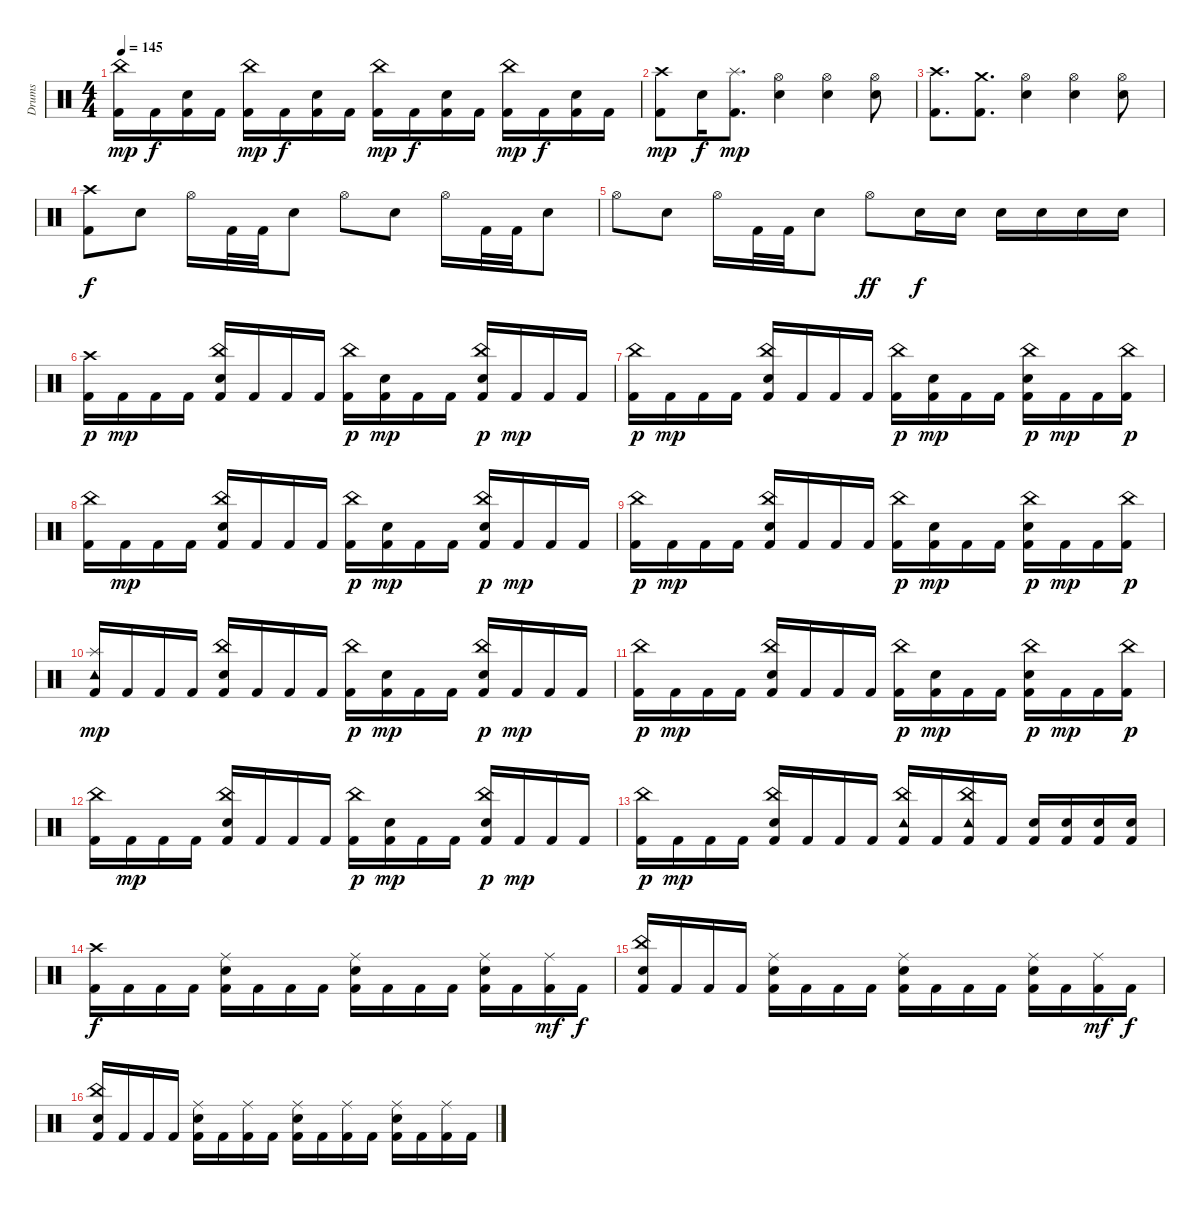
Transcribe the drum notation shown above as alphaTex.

\track ("Drums" "Drums") {instrument percussion}
\staff {score}
\articulation defaults
\ts (4 4)
\tempo 145
\clef neutral
\ks c
("Kick (hit) 2" "China (hit)").16{dy mp} "Kick (hit) 2".16{dy f} ("Electric Snare (hit)" "Kick (hit) 2").16 "Kick (hit) 2".16 ("Kick (hit) 2" "China (hit)").16{dy mp} "Kick (hit) 2".16{dy f} ("Electric Snare (hit)" "Kick (hit) 2").16 "Kick (hit) 2".16 ("Kick (hit) 2" "China (hit)").16{dy mp} "Kick (hit) 2".16{dy f} ("Electric Snare (hit)" "Kick (hit) 2").16 "Kick (hit) 2".16 ("Kick (hit) 2" "China (hit)").16{dy mp} "Kick (hit) 2".16{dy f} ("Electric Snare (hit)" "Kick (hit) 2").16 "Kick (hit) 2".16 |
("Kick (hit) 2" "Crash high (hit)").8{dy mp} "Electric Snare (hit)".16{dy f} ("Splash (hit)" "Kick (hit) 2").8{d dy mp} ("Hi-Hat (open)" "Electric Snare (hit)").4 ("Hi-Hat (open)" "Electric Snare (hit)").4 ("Hi-Hat (open)" "Electric Snare (hit)").8 |
("Kick (hit) 2" "Crash high (hit)").8{d} ("Kick (hit) 2" "Crash medium (hit)").8{d} ("Hi-Hat (open)" "Electric Snare (hit)").4 ("Hi-Hat (open)" "Electric Snare (hit)").4 ("Hi-Hat (open)" "Electric Snare (hit)").8 |
("Kick (hit) 2" "Crash high (hit)").8{dy f} "Electric Snare (hit)".8 "Hi-Hat (open)".16 "Kick (hit) 2".32 "Kick (hit) 2".32 "Electric Snare (hit)".8 "Hi-Hat (open)".8 "Electric Snare (hit)".8 "Hi-Hat (open)".16 "Kick (hit) 2".32 "Kick (hit) 2".32 "Electric Snare (hit)".8 |
"Hi-Hat (open)".8 "Electric Snare (hit)".8 "Hi-Hat (open)".16 "Kick (hit) 2".32 "Kick (hit) 2".32 "Electric Snare (hit)".8 "Hi-Hat (open)".8{dy ff} "Electric Snare (hit)".16{dy f} "Electric Snare (hit)".16 "Electric Snare (hit)".16 "Electric Snare (hit)".16 "Electric Snare (hit)".16 "Electric Snare (hit)".16 |
("Kick (hit) 2" "Crash high (hit)").16{dy p} "Kick (hit) 2".16{dy mp} "Kick (hit) 2".16 "Kick (hit) 2".16 ("Kick (hit) 2" "China (hit)" "Electric Snare (hit)").16 "Kick (hit) 2".16 "Kick (hit) 2".16 "Kick (hit) 2".16 ("Kick (hit) 2" "China (hit)").16{dy p} ("Kick (hit) 2" "Electric Snare (hit)").16{dy mp} "Kick (hit) 2".16 "Kick (hit) 2".16 ("Kick (hit) 2" "Electric Snare (hit)" "China (hit)").16{dy p} "Kick (hit) 2".16{dy mp} "Kick (hit) 2".16 "Kick (hit) 2".16 |
("Kick (hit) 2" "China (hit)").16{dy p} "Kick (hit) 2".16{dy mp} "Kick (hit) 2".16 "Kick (hit) 2".16 ("Kick (hit) 2" "China (hit)" "Electric Snare (hit)").16 "Kick (hit) 2".16 "Kick (hit) 2".16 "Kick (hit) 2".16 ("Kick (hit) 2" "China (hit)").16{dy p} ("Kick (hit) 2" "Electric Snare (hit)").16{dy mp} "Kick (hit) 2".16 "Kick (hit) 2".16 ("Kick (hit) 2" "Electric Snare (hit)" "China (hit)").16{dy p} "Kick (hit) 2".16{dy mp} "Kick (hit) 2".16 ("Kick (hit) 2" "China (hit)").16{dy p} |
("Kick (hit) 2" "China (hit)").16 "Kick (hit) 2".16{dy mp} "Kick (hit) 2".16 "Kick (hit) 2".16 ("Kick (hit) 2" "China (hit)" "Electric Snare (hit)").16 "Kick (hit) 2".16 "Kick (hit) 2".16 "Kick (hit) 2".16 ("Kick (hit) 2" "China (hit)").16{dy p} ("Kick (hit) 2" "Electric Snare (hit)").16{dy mp} "Kick (hit) 2".16 "Kick (hit) 2".16 ("Kick (hit) 2" "Electric Snare (hit)" "China (hit)").16{dy p} "Kick (hit) 2".16{dy mp} "Kick (hit) 2".16 "Kick (hit) 2".16 |
("Kick (hit) 2" "China (hit)").16{dy p} "Kick (hit) 2".16{dy mp} "Kick (hit) 2".16 "Kick (hit) 2".16 ("Kick (hit) 2" "China (hit)" "Electric Snare (hit)").16 "Kick (hit) 2".16 "Kick (hit) 2".16 "Kick (hit) 2".16 ("Kick (hit) 2" "China (hit)").16{dy p} ("Kick (hit) 2" "Electric Snare (hit)").16{dy mp} "Kick (hit) 2".16 "Kick (hit) 2".16 ("Kick (hit) 2" "Electric Snare (hit)" "China (hit)").16{dy p} "Kick (hit) 2".16{dy mp} "Kick (hit) 2".16 ("Kick (hit) 2" "China (hit)").16{dy p} |
("Kick (hit) 2" "Splash (hit)" "Tambourine (hit)").16{dy mp} "Kick (hit) 2".16 "Kick (hit) 2".16 "Kick (hit) 2".16 ("Kick (hit) 2" "China (hit)" "Electric Snare (hit)").16 "Kick (hit) 2".16 "Kick (hit) 2".16 "Kick (hit) 2".16 ("Kick (hit) 2" "China (hit)").16{dy p} ("Kick (hit) 2" "Electric Snare (hit)").16{dy mp} "Kick (hit) 2".16 "Kick (hit) 2".16 ("Kick (hit) 2" "Electric Snare (hit)" "China (hit)").16{dy p} "Kick (hit) 2".16{dy mp} "Kick (hit) 2".16 "Kick (hit) 2".16 |
("Kick (hit) 2" "China (hit)").16{dy p} "Kick (hit) 2".16{dy mp} "Kick (hit) 2".16 "Kick (hit) 2".16 ("Kick (hit) 2" "China (hit)" "Electric Snare (hit)").16 "Kick (hit) 2".16 "Kick (hit) 2".16 "Kick (hit) 2".16 ("Kick (hit) 2" "China (hit)").16{dy p} ("Kick (hit) 2" "Electric Snare (hit)").16{dy mp} "Kick (hit) 2".16 "Kick (hit) 2".16 ("Kick (hit) 2" "Electric Snare (hit)" "China (hit)").16{dy p} "Kick (hit) 2".16{dy mp} "Kick (hit) 2".16 ("Kick (hit) 2" "China (hit)").16{dy p} |
("Kick (hit) 2" "China (hit)").16 "Kick (hit) 2".16{dy mp} "Kick (hit) 2".16 "Kick (hit) 2".16 ("Kick (hit) 2" "China (hit)" "Electric Snare (hit)").16 "Kick (hit) 2".16 "Kick (hit) 2".16 "Kick (hit) 2".16 ("Kick (hit) 2" "China (hit)").16{dy p} ("Kick (hit) 2" "Electric Snare (hit)").16{dy mp} "Kick (hit) 2".16 "Kick (hit) 2".16 ("Kick (hit) 2" "Electric Snare (hit)" "China (hit)").16{dy p} "Kick (hit) 2".16{dy mp} "Kick (hit) 2".16 "Kick (hit) 2".16 |
("Kick (hit) 2" "China (hit)").16{dy p} "Kick (hit) 2".16{dy mp} "Kick (hit) 2".16 "Kick (hit) 2".16 ("Kick (hit) 2" "China (hit)" "Electric Snare (hit)").16 "Kick (hit) 2".16 "Kick (hit) 2".16 "Kick (hit) 2".16 ("Kick (hit) 2" "China (hit)" "Tambourine (hit)").16 "Kick (hit) 2".16 ("Kick (hit) 2" "China (hit)" "Tambourine (hit)").16 "Kick (hit) 2".16 ("Kick (hit) 2" "Electric Snare (hit)").16 ("Kick (hit) 2" "Electric Snare (hit)").16 ("Kick (hit) 2" "Electric Snare (hit)").16 ("Kick (hit) 2" "Electric Snare (hit)").16 |
("Crash high (hit)" "Kick (hit) 2").16{dy f} "Kick (hit) 2".16 "Kick (hit) 2".16 "Kick (hit) 2".16 ("Kick (hit) 2" "Electric Snare (hit)" "Ride (middle)").16 "Kick (hit) 2".16 "Kick (hit) 2".16 "Kick (hit) 2".16 ("Kick (hit) 2" "Electric Snare (hit)" "Ride (middle)").16 "Kick (hit) 2".16 "Kick (hit) 2".16 "Kick (hit) 2".16 ("Kick (hit) 2" "Electric Snare (hit)" "Ride (middle)").16 "Kick (hit) 2".16 ("Kick (hit) 2" "Ride (middle)").16{dy mf} "Kick (hit) 2".16{dy f} |
("Kick (hit) 2" "Electric Snare (hit)" "China (hit)").16 "Kick (hit) 2".16 "Kick (hit) 2".16 "Kick (hit) 2".16 ("Kick (hit) 2" "Electric Snare (hit)" "Ride (middle)").16 "Kick (hit) 2".16 "Kick (hit) 2".16 "Kick (hit) 2".16 ("Kick (hit) 2" "Electric Snare (hit)" "Ride (middle)").16 "Kick (hit) 2".16 "Kick (hit) 2".16 "Kick (hit) 2".16 ("Kick (hit) 2" "Electric Snare (hit)" "Ride (middle)").16 "Kick (hit) 2".16 ("Kick (hit) 2" "Ride (middle)").16{dy mf} "Kick (hit) 2".16{dy f} |
("Kick (hit) 2" "Electric Snare (hit)" "China (hit)").16 "Kick (hit) 2".16 "Kick (hit) 2".16 "Kick (hit) 2".16 ("Kick (hit) 2" "Electric Snare (hit)" "Ride (middle)").16 "Kick (hit) 2".16 ("Kick (hit) 2" "Ride (middle)").16 "Kick (hit) 2".16 ("Kick (hit) 2" "Electric Snare (hit)" "Ride (middle)").16 "Kick (hit) 2".16 ("Kick (hit) 2" "Ride (middle)").16 "Kick (hit) 2".16 ("Kick (hit) 2" "Electric Snare (hit)" "Ride (middle)").16 "Kick (hit) 2".16 ("Kick (hit) 2" "Ride (middle)").16 "Kick (hit) 2".16
